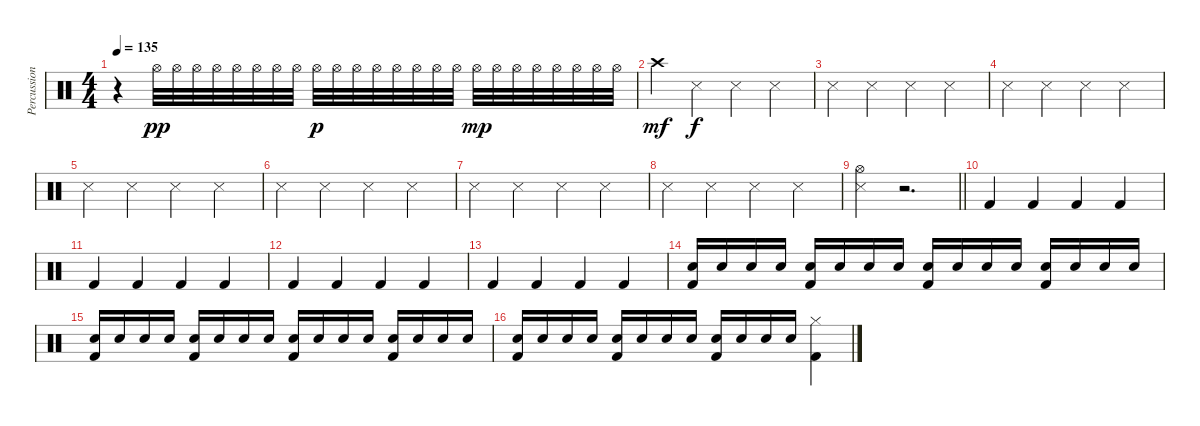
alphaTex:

\track ("Percussion" "Percussion") {instrument percussion}
\staff {score}
\articulation defaults
\ts (4 4)
\tempo 135
\clef neutral
\ks c
r.4{dy f} "Hi-Hat (open)".32{dy pp} "Hi-Hat (open)".32 "Hi-Hat (open)".32 "Hi-Hat (open)".32 "Hi-Hat (open)".32 "Hi-Hat (open)".32 "Hi-Hat (open)".32 "Hi-Hat (open)".32 "Hi-Hat (open)".32{dy p} "Hi-Hat (open)".32 "Hi-Hat (open)".32 "Hi-Hat (open)".32 "Hi-Hat (open)".32 "Hi-Hat (open)".32 "Hi-Hat (open)".32 "Hi-Hat (open)".32 "Hi-Hat (open)".32{dy mp} "Hi-Hat (open)".32 "Hi-Hat (open)".32 "Hi-Hat (open)".32 "Hi-Hat (open)".32 "Hi-Hat (open)".32 "Hi-Hat (open)".32 "Hi-Hat (open)".32 |
"Crash high (hit)".4{dy mf} "Snare (side stick) 3".4{dy f} "Snare (side stick) 3".4 "Snare (side stick) 3".4 |
"Snare (side stick) 3".4 "Snare (side stick) 3".4 "Snare (side stick) 3".4 "Snare (side stick) 3".4 |
"Snare (side stick) 3".4 "Snare (side stick) 3".4 "Snare (side stick) 3".4 "Snare (side stick) 3".4 |
"Snare (side stick) 3".4 "Snare (side stick) 3".4 "Snare (side stick) 3".4 "Snare (side stick) 3".4 |
"Snare (side stick) 3".4 "Snare (side stick) 3".4 "Snare (side stick) 3".4 "Snare (side stick) 3".4 |
"Snare (side stick) 3".4 "Snare (side stick) 3".4 "Snare (side stick) 3".4 "Snare (side stick) 3".4 |
"Snare (side stick) 3".4 "Snare (side stick) 3".4 "Snare (side stick) 3".4 "Snare (side stick) 3".4 |
\barLineRight lightlight
("Hi-Hat (open)" "Snare (side stick) 3").4 r.2{d} |
"Kick (hit) 2".4 "Kick (hit) 2".4 "Kick (hit) 2".4 "Kick (hit) 2".4 |
"Kick (hit) 2".4 "Kick (hit) 2".4 "Kick (hit) 2".4 "Kick (hit) 2".4 |
"Kick (hit) 2".4 "Kick (hit) 2".4 "Kick (hit) 2".4 "Kick (hit) 2".4 |
"Kick (hit) 2".4 "Kick (hit) 2".4 "Kick (hit) 2".4 "Kick (hit) 2".4 |
("Snare (hit) 2" "Kick (hit) 2").16 "Snare (hit) 2".16 "Snare (hit) 2".16 "Snare (hit) 2".16 ("Snare (hit) 2" "Kick (hit) 2").16 "Snare (hit) 2".16 "Snare (hit) 2".16 "Snare (hit) 2".16 ("Snare (hit) 2" "Kick (hit) 2").16 "Snare (hit) 2".16 "Snare (hit) 2".16 "Snare (hit) 2".16 ("Snare (hit) 2" "Kick (hit) 2").16 "Snare (hit) 2".16 "Snare (hit) 2".16 "Snare (hit) 2".16 |
("Snare (hit) 2" "Kick (hit) 2").16 "Snare (hit) 2".16 "Snare (hit) 2".16 "Snare (hit) 2".16 ("Snare (hit) 2" "Kick (hit) 2").16 "Snare (hit) 2".16 "Snare (hit) 2".16 "Snare (hit) 2".16 ("Snare (hit) 2" "Kick (hit) 2").16 "Snare (hit) 2".16 "Snare (hit) 2".16 "Snare (hit) 2".16 ("Snare (hit) 2" "Kick (hit) 2").16 "Snare (hit) 2".16 "Snare (hit) 2".16 "Snare (hit) 2".16 |
("Snare (hit) 2" "Kick (hit) 2").16 "Snare (hit) 2".16 "Snare (hit) 2".16 "Snare (hit) 2".16 ("Snare (hit) 2" "Kick (hit) 2").16 "Snare (hit) 2".16 "Snare (hit) 2".16 "Snare (hit) 2".16 ("Snare (hit) 2" "Kick (hit) 2").16 "Snare (hit) 2".16 "Snare (hit) 2".16 "Snare (hit) 2".16 ("Hi-Hat (closed)" "Kick (hit) 2").4
